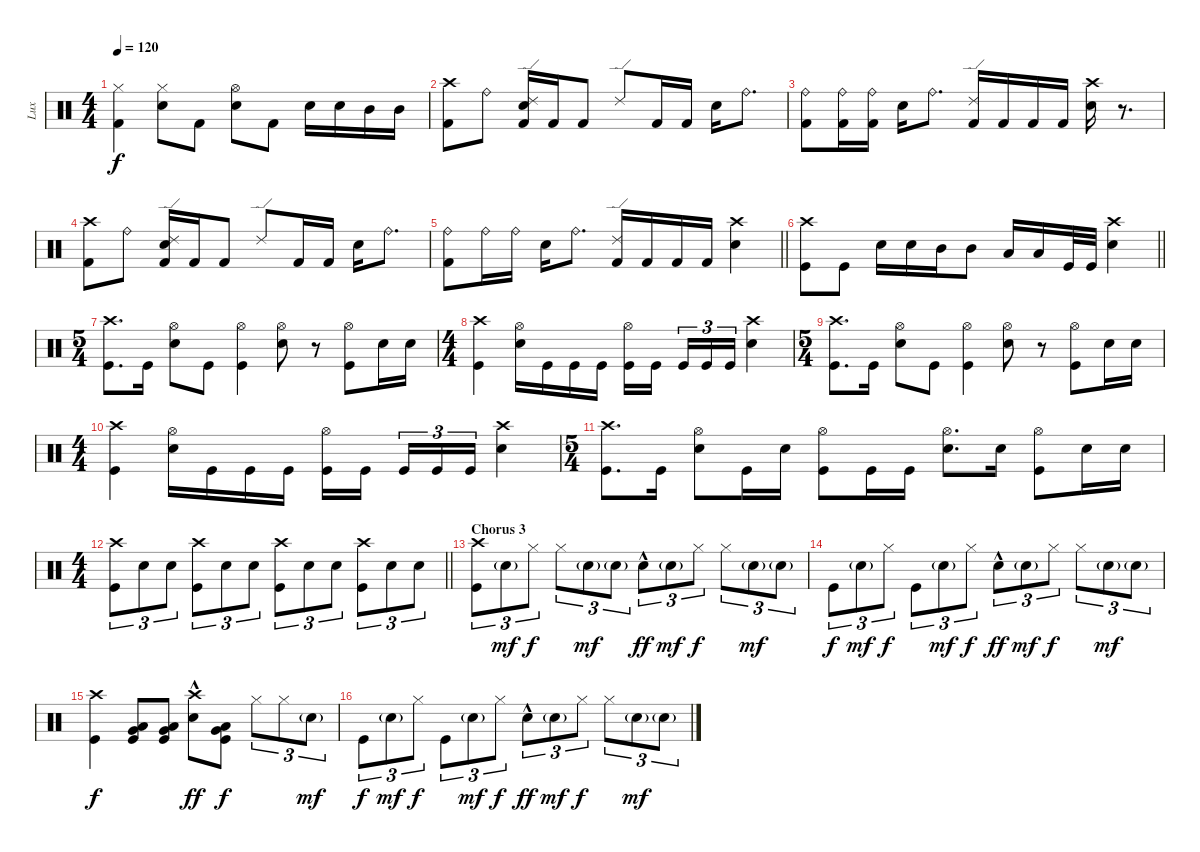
\track ("Lux" "Lux") {instrument percussion bank 32}
\staff {score}
\articulation defaults
\ts (4 4)
\tempo 120
\clef neutral
\ks c
("Hi-Hat (closed)" "Kick (hit) 2").4{dy f} ("Hi-Hat (closed)" "Snare (hit) 2").8 "Kick (hit) 2".8 ("Hi-Hat (open)" "Snare (hit) 2").8 "Kick (hit) 2".8 "Snare (hit) 2".16 "Snare (hit) 2".16 "Mid Tom (hit)".16 "Mid Tom (hit)".16 |
("Crash high (hit)" "Kick (hit) 2").8 "Ride (bell)".8 ("Ride (edge) 2" "Snare (hit) 2" "Kick (hit) 2").16 "Kick (hit) 2".16 "Kick (hit) 2".8 "Ride (edge) 2".8 "Kick (hit) 2".16 "Kick (hit) 2".16 "Snare (hit) 2".16 "Ride (bell)".8{d} |
("Ride (bell)" "Kick (hit) 2").8 ("Ride (bell)" "Kick (hit) 2").16 ("Ride (bell)" "Kick (hit) 2").16 "Snare (hit) 2".16 "Ride (bell)".8{d} ("Ride (edge) 2" "Kick (hit) 2").16 "Kick (hit) 2".16 "Kick (hit) 2".16 "Kick (hit) 2".16 ("Crash high (hit)" "Snare (hit) 2").16 r.8{d} |
("Crash high (hit)" "Kick (hit) 2").8 "Ride (bell)".8 ("Ride (edge) 2" "Snare (hit) 2" "Kick (hit) 2").16 "Kick (hit) 2".16 "Kick (hit) 2".8 "Ride (edge) 2".8 "Kick (hit) 2".16 "Kick (hit) 2".16 "Snare (hit) 2".16 "Ride (bell)".8{d} |
\barLineRight lightlight
("Ride (bell)" "Kick (hit) 2").8 "Ride (bell)".16 "Ride (bell)".16 "Snare (hit) 2".16 "Ride (bell)".8{d} ("Ride (edge) 2" "Kick (hit) 2").16 "Kick (hit) 2".16 "Kick (hit) 2".16 "Kick (hit) 2".16 ("Crash high (hit)" "Snare (hit) 2").4 |
\barLineRight lightlight
("Crash high (hit)" "Kick (hit)").8 "Kick (hit)".8 "Snare (hit) 2".16 "Snare (hit) 2".16 "Mid Tom (hit)".16 "Mid Tom (hit)".8 "Low Tom (hit)".16 "Low Tom (hit)".16 "Kick (hit)".32 "Kick (hit)".32 ("Crash high (hit)" "Snare (hit) 2").4 |
\ts (5 4)
("Crash high (hit)" "Kick (hit)").8{d} "Kick (hit)".16 ("Hi-Hat (open)" "Snare (hit) 2").8 "Kick (hit)".8 ("Hi-Hat (open)" "Kick (hit)").4 ("Hi-Hat (open)" "Snare (hit) 2").8 r.8 ("Hi-Hat (open)" "Kick (hit)").8 "Snare (hit) 2".16 "Snare (hit) 2".16 |
\ts (4 4)
("Crash high (hit)" "Kick (hit)").4 ("Hi-Hat (open)" "Snare (hit) 2").16 "Kick (hit)".16 "Kick (hit)".16 "Kick (hit)".16 ("Hi-Hat (open)" "Kick (hit)").16 "Kick (hit)".16{beam splitsecondary} "Kick (hit)".16{tu (3 2)} "Kick (hit)".16{tu (3 2)} "Kick (hit)".16{tu (3 2)} ("Crash high (hit)" "Snare (hit) 2").4 |
\ts (5 4)
("Crash high (hit)" "Kick (hit)").8{d} "Kick (hit)".16 ("Hi-Hat (open)" "Snare (hit) 2").8 "Kick (hit)".8 ("Hi-Hat (open)" "Kick (hit)").4 ("Hi-Hat (open)" "Snare (hit) 2").8 r.8 ("Hi-Hat (open)" "Kick (hit)").8 "Snare (hit) 2".16 "Snare (hit) 2".16 |
\ts (4 4)
("Crash high (hit)" "Kick (hit)").4 ("Hi-Hat (open)" "Snare (hit) 2").16 "Kick (hit)".16 "Kick (hit)".16 "Kick (hit)".16 ("Hi-Hat (open)" "Kick (hit)").16 "Kick (hit)".16{beam splitsecondary} "Kick (hit)".16{tu (3 2)} "Kick (hit)".16{tu (3 2)} "Kick (hit)".16{tu (3 2)} ("Crash high (hit)" "Snare (hit) 2").4 |
\ts (5 4)
("Crash high (hit)" "Kick (hit)").8{d} "Kick (hit)".16 ("Hi-Hat (open)" "Snare (hit) 2").8 "Kick (hit)".16 "Snare (hit) 2".16 ("Hi-Hat (open)" "Kick (hit)").8 "Kick (hit)".16 "Kick (hit)".16 ("Hi-Hat (open)" "Snare (hit) 2").8{d} "Snare (hit) 2".16 ("Hi-Hat (open)" "Kick (hit)").8 "Snare (hit) 2".16 "Snare (hit) 2".16 |
\ts (4 4)
\barLineRight lightlight
("Crash high (hit)" "Kick (hit)").8{tu (3 2)} "Snare (hit) 2".8{tu (3 2)} "Snare (hit) 2".8{tu (3 2)} ("Crash high (hit)" "Kick (hit)").8{tu (3 2)} "Snare (hit) 2".8{tu (3 2)} "Snare (hit) 2".8{tu (3 2)} ("Crash high (hit)" "Kick (hit)").8{tu (3 2)} "Snare (hit) 2".8{tu (3 2)} "Snare (hit) 2".8{tu (3 2)} ("Crash high (hit)" "Kick (hit)").8{tu (3 2)} "Snare (hit) 2".8{tu (3 2)} "Snare (hit) 2".8{tu (3 2)} |
\section ("" "Chorus 3")
("Crash high (hit)" "Kick (hit)").8{tu (3 2)} "Snare (hit) 2"{g}.8{tu (3 2) dy mf} "Hi-Hat (closed)".8{tu (3 2) dy f} "Hi-Hat (closed)".8{tu (3 2)} "Snare (hit) 2"{g}.8{tu (3 2) dy mf} "Snare (hit) 2"{g}.8{tu (3 2)} "Snare (hit) 2"{hac}.8{tu (3 2) dy ff} "Snare (hit) 2"{g}.8{tu (3 2) dy mf} "Hi-Hat (closed)".8{tu (3 2) dy f} "Hi-Hat (closed)".8{tu (3 2)} "Snare (hit) 2"{g}.8{tu (3 2) dy mf} "Snare (hit) 2"{g}.8{tu (3 2)} |
"Kick (hit)".8{tu (3 2) dy f} "Snare (hit) 2"{g}.8{tu (3 2) dy mf} "Hi-Hat (closed)".8{tu (3 2) dy f} "Kick (hit)".8{tu (3 2)} "Snare (hit) 2"{g}.8{tu (3 2) dy mf} "Hi-Hat (closed)".8{tu (3 2) dy f} "Snare (hit) 2"{hac}.8{tu (3 2) dy ff} "Snare (hit) 2"{g}.8{tu (3 2) dy mf} "Hi-Hat (closed)".8{tu (3 2) dy f} "Hi-Hat (closed)".8{tu (3 2)} "Snare (hit) 2"{g}.8{tu (3 2) dy mf} "Snare (hit) 2"{g}.8{tu (3 2)} |
("Crash high (hit)" "Kick (hit)").4{dy f} ("Low Tom (hit)" "Very Low Tom (hit)" "Kick (hit)").8 ("Low Tom (hit)" "Very Low Tom (hit)" "Kick (hit)").8 ("Crash high (hit)" "Snare (hit) 2"{hac}).8{dy ff} ("Low Tom (hit)" "Very Low Tom (hit)" "Kick (hit)").8{dy f} "Hi-Hat (closed)".8{tu (3 2)} "Hi-Hat (closed)".8{tu (3 2)} "Snare (hit) 2"{g}.8{tu (3 2) dy mf} |
"Kick (hit)".8{tu (3 2) dy f} "Snare (hit) 2"{g}.8{tu (3 2) dy mf} "Hi-Hat (closed)".8{tu (3 2) dy f} "Kick (hit)".8{tu (3 2)} "Snare (hit) 2"{g}.8{tu (3 2) dy mf} "Hi-Hat (closed)".8{tu (3 2) dy f} "Snare (hit) 2"{hac}.8{tu (3 2) dy ff} "Snare (hit) 2"{g}.8{tu (3 2) dy mf} "Hi-Hat (closed)".8{tu (3 2) dy f} "Hi-Hat (closed)".8{tu (3 2)} "Snare (hit) 2"{g}.8{tu (3 2) dy mf} "Snare (hit) 2"{g}.8{tu (3 2)}
